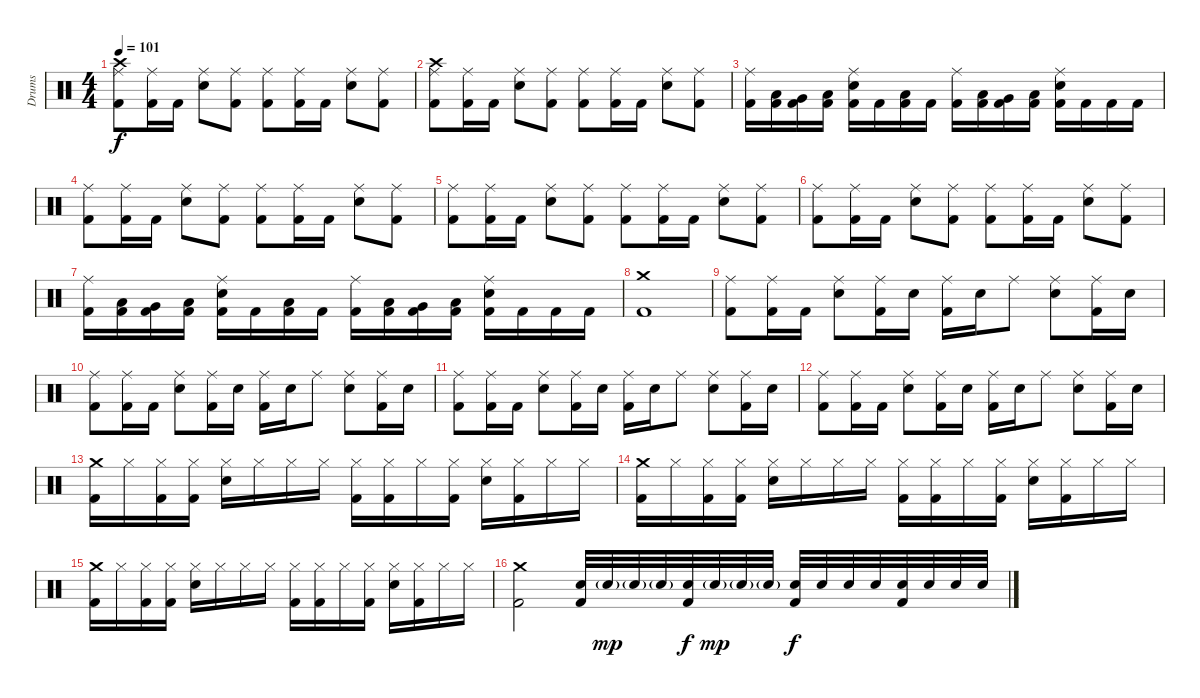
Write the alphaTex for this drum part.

\track ("Drums" "Drums") {instrument percussion}
\staff {score}
\articulation defaults
\ts (4 4)
\tempo 101
\clef neutral
\ks c
("Crash high (hit)" "Ride (middle)" "Kick (hit) 2").8{dy f} ("Ride (middle)" "Kick (hit) 2").16 "Kick (hit) 2".16 ("Ride (middle)" "Electric Snare (hit)").8 ("Ride (middle)" "Kick (hit) 2").8 ("Ride (middle)" "Kick (hit) 2").8 ("Ride (middle)" "Kick (hit) 2").16 "Kick (hit) 2".16 ("Ride (middle)" "Electric Snare (hit)").8 ("Ride (middle)" "Kick (hit) 2").8 |
("Crash high (hit)" "Ride (middle)" "Kick (hit) 2").8 ("Ride (middle)" "Kick (hit) 2").16 "Kick (hit) 2".16 ("Ride (middle)" "Electric Snare (hit)").8 ("Ride (middle)" "Kick (hit) 2").8 ("Ride (middle)" "Kick (hit) 2").8 ("Ride (middle)" "Kick (hit) 2").16 "Kick (hit) 2".16 ("Ride (middle)" "Electric Snare (hit)").8 ("Ride (middle)" "Kick (hit) 2").8 |
("Ride (middle)" "Kick (hit) 2").16 ("Low Tom (hit)" "Kick (hit) 2").16 ("Very Low Tom (hit)" "Kick (hit) 2").16 ("Low Floor Tom (hit)" "Kick (hit) 2").16 ("Ride (middle)" "Electric Snare (hit)" "Kick (hit) 2").16 "Kick (hit) 2".16 ("Low Tom (hit)" "Kick (hit) 2").16 "Kick (hit) 2".16 ("Ride (middle)" "Kick (hit) 2").16 ("Low Tom (hit)" "Kick (hit) 2").16 ("Very Low Tom (hit)" "Kick (hit) 2").16 ("Low Floor Tom (hit)" "Kick (hit) 2").16 ("Ride (middle)" "Electric Snare (hit)" "Kick (hit) 2").16 "Kick (hit) 2".16 "Kick (hit) 2".16 "Kick (hit) 2".16 |
("Ride (middle)" "Kick (hit) 2").8 ("Ride (middle)" "Kick (hit) 2").16 "Kick (hit) 2".16 ("Ride (middle)" "Electric Snare (hit)").8 ("Ride (middle)" "Kick (hit) 2").8 ("Ride (middle)" "Kick (hit) 2").8 ("Ride (middle)" "Kick (hit) 2").16 "Kick (hit) 2".16 ("Ride (middle)" "Electric Snare (hit)").8 ("Ride (middle)" "Kick (hit) 2").8 |
("Ride (middle)" "Kick (hit) 2").8 ("Ride (middle)" "Kick (hit) 2").16 "Kick (hit) 2".16 ("Ride (middle)" "Electric Snare (hit)").8 ("Ride (middle)" "Kick (hit) 2").8 ("Ride (middle)" "Kick (hit) 2").8 ("Ride (middle)" "Kick (hit) 2").16 "Kick (hit) 2".16 ("Ride (middle)" "Electric Snare (hit)").8 ("Ride (middle)" "Kick (hit) 2").8 |
("Ride (middle)" "Kick (hit) 2").8 ("Ride (middle)" "Kick (hit) 2").16 "Kick (hit) 2".16 ("Ride (middle)" "Electric Snare (hit)").8 ("Ride (middle)" "Kick (hit) 2").8 ("Ride (middle)" "Kick (hit) 2").8 ("Ride (middle)" "Kick (hit) 2").16 "Kick (hit) 2".16 ("Ride (middle)" "Electric Snare (hit)").8 ("Ride (middle)" "Kick (hit) 2").8 |
("Ride (middle)" "Kick (hit) 2").16 ("Low Tom (hit)" "Kick (hit) 2").16 ("Very Low Tom (hit)" "Kick (hit) 2").16 ("Low Floor Tom (hit)" "Kick (hit) 2").16 ("Ride (middle)" "Electric Snare (hit)" "Kick (hit) 2").16 "Kick (hit) 2".16 ("Low Tom (hit)" "Kick (hit) 2").16 "Kick (hit) 2".16 ("Ride (middle)" "Kick (hit) 2").16 ("Low Tom (hit)" "Kick (hit) 2").16 ("Very Low Tom (hit)" "Kick (hit) 2").16 ("Low Floor Tom (hit)" "Kick (hit) 2").16 ("Ride (middle)" "Electric Snare (hit)" "Kick (hit) 2").16 "Kick (hit) 2".16 "Kick (hit) 2".16 "Kick (hit) 2".16 |
("Crash medium (hit)" "Kick (hit) 2").1 |
("Ride (middle)" "Kick (hit) 2").8 ("Ride (middle)" "Kick (hit) 2").16 "Kick (hit) 2".16 ("Ride (middle)" "Electric Snare (hit)").8 ("Ride (middle)" "Kick (hit) 2").16 "Electric Snare (hit)".16 ("Ride (middle)" "Kick (hit) 2").16 "Electric Snare (hit)".16 "Ride (middle)".8 ("Ride (middle)" "Electric Snare (hit)").8 ("Ride (middle)" "Kick (hit) 2").16 "Electric Snare (hit)".16 |
("Ride (middle)" "Kick (hit) 2").8 ("Ride (middle)" "Kick (hit) 2").16 "Kick (hit) 2".16 ("Ride (middle)" "Electric Snare (hit)").8 ("Ride (middle)" "Kick (hit) 2").16 "Electric Snare (hit)".16 ("Ride (middle)" "Kick (hit) 2").16 "Electric Snare (hit)".16 "Ride (middle)".8 ("Ride (middle)" "Electric Snare (hit)").8 ("Ride (middle)" "Kick (hit) 2").16 "Electric Snare (hit)".16 |
("Ride (middle)" "Kick (hit) 2").8 ("Ride (middle)" "Kick (hit) 2").16 "Kick (hit) 2".16 ("Ride (middle)" "Electric Snare (hit)").8 ("Ride (middle)" "Kick (hit) 2").16 "Electric Snare (hit)".16 ("Ride (middle)" "Kick (hit) 2").16 "Electric Snare (hit)".16 "Ride (middle)".8 ("Ride (middle)" "Electric Snare (hit)").8 ("Ride (middle)" "Kick (hit) 2").16 "Electric Snare (hit)".16 |
("Ride (middle)" "Kick (hit) 2").8 ("Ride (middle)" "Kick (hit) 2").16 "Kick (hit) 2".16 ("Ride (middle)" "Electric Snare (hit)").8 ("Ride (middle)" "Kick (hit) 2").16 "Electric Snare (hit)".16 ("Ride (middle)" "Kick (hit) 2").16 "Electric Snare (hit)".16 "Ride (middle)".8 ("Ride (middle)" "Electric Snare (hit)").8 ("Ride (middle)" "Kick (hit) 2").16 "Electric Snare (hit)".16 |
("Crash medium (hit)" "Kick (hit) 2").16 "Hi-Hat (closed)".16 ("Hi-Hat (closed)" "Kick (hit) 2").16 ("Hi-Hat (closed)" "Kick (hit) 2").16 ("Hi-Hat (closed)" "Electric Snare (hit)").16 "Hi-Hat (closed)".16 "Hi-Hat (closed)".16 "Hi-Hat (closed)".16 ("Hi-Hat (closed)" "Kick (hit) 2").16 ("Hi-Hat (closed)" "Kick (hit) 2").16 "Hi-Hat (closed)".16 ("Hi-Hat (closed)" "Kick (hit) 2").16 ("Hi-Hat (closed)" "Electric Snare (hit)").16 ("Hi-Hat (closed)" "Kick (hit) 2").16 "Hi-Hat (closed)".16 "Hi-Hat (closed)".16 |
("Crash medium (hit)" "Kick (hit) 2").16 "Hi-Hat (closed)".16 ("Hi-Hat (closed)" "Kick (hit) 2").16 ("Hi-Hat (closed)" "Kick (hit) 2").16 ("Hi-Hat (closed)" "Electric Snare (hit)").16 "Hi-Hat (closed)".16 "Hi-Hat (closed)".16 "Hi-Hat (closed)".16 ("Hi-Hat (closed)" "Kick (hit) 2").16 ("Hi-Hat (closed)" "Kick (hit) 2").16 "Hi-Hat (closed)".16 ("Hi-Hat (closed)" "Kick (hit) 2").16 ("Hi-Hat (closed)" "Electric Snare (hit)").16 ("Hi-Hat (closed)" "Kick (hit) 2").16 "Hi-Hat (closed)".16 "Hi-Hat (closed)".16 |
("Crash medium (hit)" "Kick (hit) 2").16 "Hi-Hat (closed)".16 ("Hi-Hat (closed)" "Kick (hit) 2").16 ("Hi-Hat (closed)" "Kick (hit) 2").16 ("Hi-Hat (closed)" "Electric Snare (hit)").16 "Hi-Hat (closed)".16 "Hi-Hat (closed)".16 "Hi-Hat (closed)".16 ("Hi-Hat (closed)" "Kick (hit) 2").16 ("Hi-Hat (closed)" "Kick (hit) 2").16 "Hi-Hat (closed)".16 ("Hi-Hat (closed)" "Kick (hit) 2").16 ("Hi-Hat (closed)" "Electric Snare (hit)").16 ("Hi-Hat (closed)" "Kick (hit) 2").16 "Hi-Hat (closed)".16 "Hi-Hat (closed)".16 |
("Crash medium (hit)" "Kick (hit) 2").2 ("Electric Snare (hit)" "Kick (hit) 2").32 "Electric Snare (hit)"{g}.32{dy mp} "Electric Snare (hit)"{g}.32 "Electric Snare (hit)"{g}.32 ("Electric Snare (hit)" "Kick (hit) 2").32{dy f} "Electric Snare (hit)"{g}.32{dy mp} "Electric Snare (hit)"{g}.32 "Electric Snare (hit)"{g}.32 ("Electric Snare (hit)" "Kick (hit) 2").32{dy f} "Electric Snare (hit)".32 "Electric Snare (hit)".32 "Electric Snare (hit)".32 ("Electric Snare (hit)" "Kick (hit) 2").32 "Electric Snare (hit)".32 "Electric Snare (hit)".32 "Electric Snare (hit)".32
